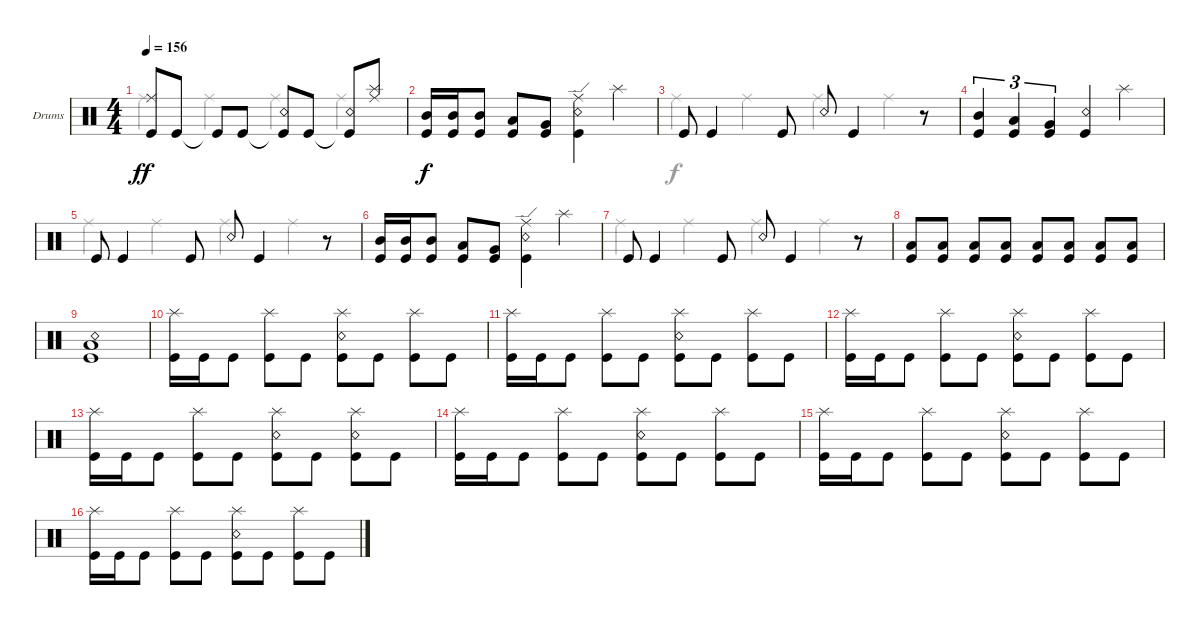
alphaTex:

\defaultSystemsLayout 4
\bracketExtendMode groupsimilarinstruments
\firstSystemTrackNameOrientation horizontal
\otherSystemsTrackNameOrientation horizontal
\track ("Drumkit" "Drums") {instrument percussion}
\staff {score}
\articulation defaults
\voice
\ts (4 4)
\tempo 156
\clef neutral
\ks c
("Kick (hit)"{t} "Ride (middle)").8{dy ff} "Kick (hit)".8 "Kick (hit)"{t}.8 "Kick (hit)".8 ("Kick (hit)"{t} "Snare (rim shot)").8 "Kick (hit)".8 ("Kick (hit)"{t} "Snare (rim shot)").8 ("Ride (middle)" "Splash (hit)").8 |
("Kick (hit)" "Mid Tom (hit)").16{dy f} ("Mid Tom (hit)" "Kick (hit)").16 ("Kick (hit)" "Mid Tom (hit)").8 ("Kick (hit)" "Low Tom (hit)").8 ("Kick (hit)" "Very Low Tom (hit)").8 ("Snare (rim shot)" "Ride (edge)" "Kick (hit)").4 "Splash (hit)".4 |
"Kick (hit)".8 "Kick (hit)".4 "Kick (hit)".8 "Snare (rim shot)".8 "Kick (hit)".4 r.8 |
("Kick (hit)" "Mid Tom (hit)").4{tu (3 2)} ("Kick (hit)" "Low Tom (hit)").4{tu (3 2)} ("Kick (hit)" "Very Low Tom (hit)").4{tu (3 2)} ("Kick (hit)" "Snare (rim shot)").4 "Splash (hit)".4 |
"Kick (hit)".8 "Kick (hit)".4 "Kick (hit)".8 "Snare (rim shot)".8 "Kick (hit)".4 r.8 |
("Kick (hit)" "Mid Tom (hit)").16 ("Mid Tom (hit)" "Kick (hit)").16 ("Kick (hit)" "Mid Tom (hit)").8 ("Kick (hit)" "Low Tom (hit)").8 ("Kick (hit)" "Very Low Tom (hit)").8 ("Snare (rim shot)" "Ride (edge)" "Kick (hit)").4 "Splash (hit)".4 |
"Kick (hit)".8 "Kick (hit)".4 "Kick (hit)".8 "Snare (rim shot)".8 "Kick (hit)".4 r.8 |
("Kick (hit)" "Low Tom (hit)").8 ("Kick (hit)" "Low Tom (hit)").8 ("Kick (hit)" "Low Tom (hit)").8 ("Kick (hit)" "Low Tom (hit)").8 ("Kick (hit)" "Low Tom (hit)").8 ("Kick (hit)" "Low Tom (hit)").8 ("Kick (hit)" "Low Tom (hit)").8 ("Kick (hit)" "Low Tom (hit)").8 |
("Kick (hit)" "Snare (rim shot)" "Low Tom (hit)").1 |
("Kick (hit)" "Splash (hit)").16 "Kick (hit)".16 "Kick (hit)".8 ("Kick (hit)" "Splash (hit)").8 "Kick (hit)".8 ("Kick (hit)" "Snare (rim shot)" "Splash (hit)").8 "Kick (hit)".8 ("Kick (hit)" "Splash (hit)").8 "Kick (hit)".8 |
("Kick (hit)" "Splash (hit)").16 "Kick (hit)".16 "Kick (hit)".8 ("Kick (hit)" "Splash (hit)").8 "Kick (hit)".8 ("Kick (hit)" "Snare (rim shot)" "Splash (hit)").8 "Kick (hit)".8 ("Kick (hit)" "Splash (hit)").8 "Kick (hit)".8 |
("Kick (hit)" "Splash (hit)").16 "Kick (hit)".16 "Kick (hit)".8 ("Kick (hit)" "Splash (hit)").8 "Kick (hit)".8 ("Kick (hit)" "Snare (rim shot)" "Splash (hit)").8 "Kick (hit)".8 ("Kick (hit)" "Splash (hit)").8 "Kick (hit)".8 |
("Kick (hit)" "Splash (hit)").16 "Kick (hit)".16 "Kick (hit)".8 ("Kick (hit)" "Splash (hit)").8 "Kick (hit)".8 ("Kick (hit)" "Snare (rim shot)" "Splash (hit)").8 "Kick (hit)".8 ("Kick (hit)" "Snare (rim shot)" "Splash (hit)").8 "Kick (hit)".8 |
("Kick (hit)" "Splash (hit)").16 "Kick (hit)".16 "Kick (hit)".8 ("Kick (hit)" "Splash (hit)").8 "Kick (hit)".8 ("Kick (hit)" "Snare (rim shot)" "Splash (hit)").8 "Kick (hit)".8 ("Kick (hit)" "Splash (hit)").8 "Kick (hit)".8 |
("Kick (hit)" "Splash (hit)").16 "Kick (hit)".16 "Kick (hit)".8 ("Kick (hit)" "Splash (hit)").8 "Kick (hit)".8 ("Kick (hit)" "Snare (rim shot)" "Splash (hit)").8 "Kick (hit)".8 ("Kick (hit)" "Splash (hit)").8 "Kick (hit)".8 |
("Kick (hit)" "Splash (hit)").16 "Kick (hit)".16 "Kick (hit)".8 ("Kick (hit)" "Splash (hit)").8 "Kick (hit)".8 ("Kick (hit)" "Snare (rim shot)" "Splash (hit)").8 "Kick (hit)".8 ("Kick (hit)" "Splash (hit)").8 "Kick (hit)".8
\voice
\clef neutral
\ottava regular
\simile none
\ks c "Ride (middle)".4{dy ff} "Ride (middle)".4 "Ride (middle)".4 "Ride (middle)".4
|
|
"Ride (middle)".4{dy f} "Ride (middle)".4 "Ride (middle)".4 "Ride (middle)".4 |
|
"Ride (middle)".4 "Ride (middle)".4 "Ride (middle)".4 "Ride (middle)".4 |
|
"Ride (middle)".4 "Ride (middle)".4 "Ride (middle)".4 "Ride (middle)".4 |
|
|
|
|
|
|
|
|
